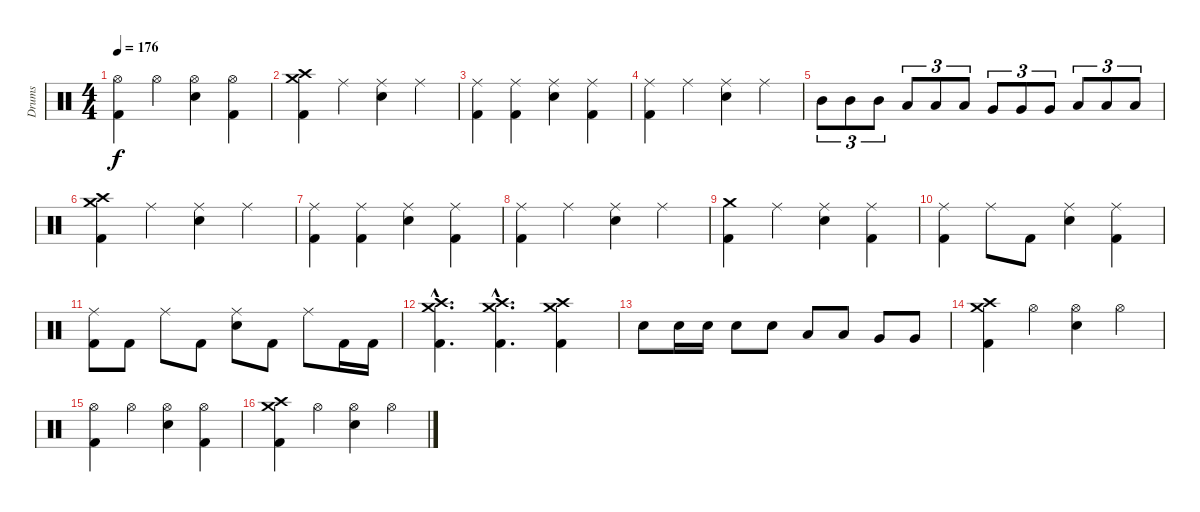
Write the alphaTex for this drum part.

\track ("Drums" "Drums") {instrument percussion}
\staff {score}
\articulation defaults
\ts (4 4)
\tempo 176
\clef neutral
\ks c
("Hi-Hat (open)" "Kick (hit) 2").4{dy f} "Hi-Hat (open)".4 ("Hi-Hat (open)" "Snare (hit) 2").4 ("Hi-Hat (open)" "Kick (hit) 2").4 |
("Crash medium (hit)" "Crash high (hit)" "Kick (hit) 2").4 "Ride (middle)".4 ("Ride (middle)" "Snare (hit) 2").4 "Ride (middle)".4 |
("Ride (middle)" "Kick (hit) 2").4 ("Ride (middle)" "Kick (hit) 2").4 ("Ride (middle)" "Snare (hit) 2").4 ("Ride (middle)" "Kick (hit) 2").4 |
("Ride (middle)" "Kick (hit) 2").4 "Ride (middle)".4 ("Ride (middle)" "Snare (hit) 2").4 "Ride (middle)".4 |
"Mid Tom (hit)".8{tu (3 2)} "Mid Tom (hit)".8{tu (3 2)} "Mid Tom (hit)".8{tu (3 2)} "Low Tom (hit)".8{tu (3 2)} "Low Tom (hit)".8{tu (3 2)} "Low Tom (hit)".8{tu (3 2)} "Very Low Tom (hit)".8{tu (3 2)} "Very Low Tom (hit)".8{tu (3 2)} "Very Low Tom (hit)".8{tu (3 2)} "Low Floor Tom (hit)".8{tu (3 2)} "Low Floor Tom (hit)".8{tu (3 2)} "Low Floor Tom (hit)".8{tu (3 2)} |
("Crash medium (hit)" "Crash high (hit)" "Kick (hit) 2").4 "Ride (middle)".4 ("Ride (middle)" "Snare (hit) 2").4 "Ride (middle)".4 |
("Ride (middle)" "Kick (hit) 2").4 ("Ride (middle)" "Kick (hit) 2").4 ("Ride (middle)" "Snare (hit) 2").4 ("Ride (middle)" "Kick (hit) 2").4 |
("Ride (middle)" "Kick (hit) 2").4 "Ride (middle)".4 ("Ride (middle)" "Snare (hit) 2").4 "Ride (middle)".4 |
("Crash medium (hit)" "Kick (hit) 2").4 "Ride (middle)".4 ("Ride (middle)" "Snare (hit) 2").4 ("Ride (middle)" "Kick (hit) 2").4 |
("Ride (middle)" "Kick (hit) 2").4 "Ride (middle)".8 "Kick (hit) 2".8 ("Ride (middle)" "Snare (hit) 2").4 ("Ride (middle)" "Kick (hit) 2").4 |
("Ride (middle)" "Kick (hit) 2").8 "Kick (hit) 2".8 "Ride (middle)".8 "Kick (hit) 2".8 ("Ride (middle)" "Snare (hit) 2").8 "Kick (hit) 2".8 "Ride (middle)".8 "Kick (hit) 2".16 "Kick (hit) 2".16 |
("Crash medium (hit)"{hac} "Crash high (hit)"{hac} "Kick (hit) 2"{hac}).4{d} ("Crash medium (hit)"{hac} "Crash high (hit)"{hac} "Kick (hit) 2"{hac}).4{d} ("Crash medium (hit)" "Crash high (hit)" "Kick (hit) 2").4 |
"Snare (hit) 2".8 "Snare (hit) 2".16 "Snare (hit) 2".16 "Snare (hit) 2".8 "Snare (hit) 2".8 "Low Tom (hit)".8 "Low Tom (hit)".8 "Very Low Tom (hit)".8 "Very Low Tom (hit)".8 |
("Crash high (hit)" "Crash medium (hit)" "Kick (hit) 2").4 "Hi-Hat (open)".4 ("Hi-Hat (open)" "Snare (hit) 2").4 "Hi-Hat (open)".4 |
("Hi-Hat (open)" "Kick (hit) 2").4 "Hi-Hat (open)".4 ("Hi-Hat (open)" "Snare (hit) 2").4 ("Hi-Hat (open)" "Kick (hit) 2").4 |
("Crash high (hit)" "Crash medium (hit)" "Kick (hit) 2").4 "Hi-Hat (open)".4 ("Hi-Hat (open)" "Snare (hit) 2").4 "Hi-Hat (open)".4
